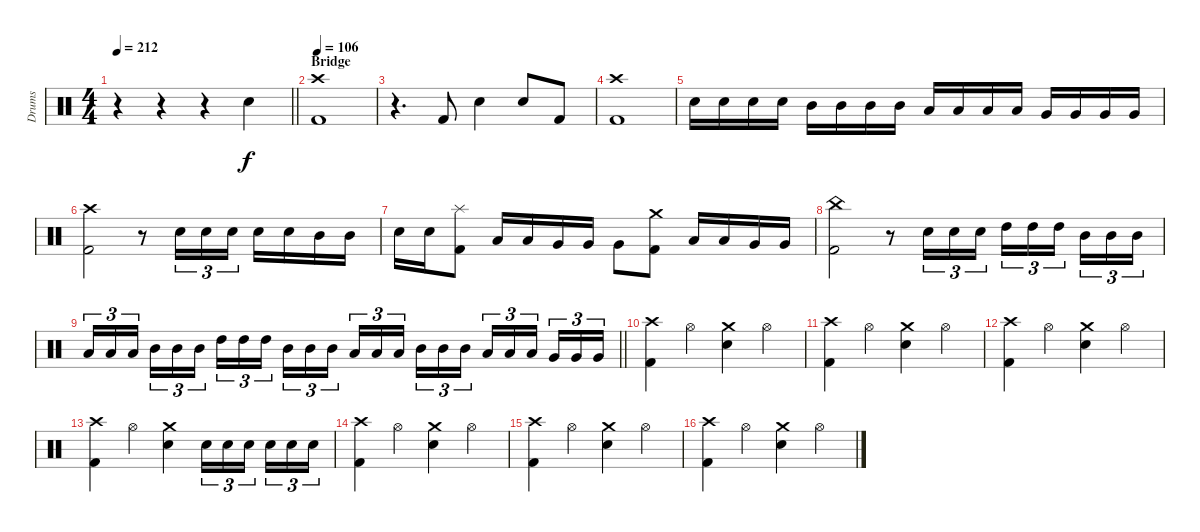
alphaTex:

\track ("Drums" "Drums") {instrument percussion}
\staff {score}
\articulation defaults
\ts (4 4)
\tempo 212
\clef neutral
\barLineRight lightlight
\ks c
r.4{dy f} r.4 r.4 "Electric Snare (hit)".4 |
\section ("" "Bridge")
\tempo 106
("Crash high (hit)" "Kick (hit) 2").1 |
r.4{d} "Kick (hit) 2".8 "Electric Snare (hit)".4 "Electric Snare (hit)".8 "Kick (hit) 2".8 |
("Crash high (hit)" "Kick (hit) 2").1 |
"Electric Snare (hit)".16 "Electric Snare (hit)".16 "Electric Snare (hit)".16 "Electric Snare (hit)".16 "Mid Tom (hit)".16 "Mid Tom (hit)".16 "Mid Tom (hit)".16 "Mid Tom (hit)".16 "Low Tom (hit)".16 "Low Tom (hit)".16 "Low Tom (hit)".16 "Low Tom (hit)".16 "Very Low Tom (hit)".16 "Very Low Tom (hit)".16 "Very Low Tom (hit)".16 "Very Low Tom (hit)".16 |
("Crash high (hit)" "Kick (hit) 2").2 r.8 "Electric Snare (hit)".16{tu (3 2)} "Electric Snare (hit)".16{tu (3 2)} "Electric Snare (hit)".16{tu (3 2)} "Electric Snare (hit)".16 "Electric Snare (hit)".16 "Mid Tom (hit)".16 "Mid Tom (hit)".16 |
"Electric Snare (hit)".16 "Electric Snare (hit)".16 ("Splash (hit)" "Kick (hit) 2").8 "Low Tom (hit)".16 "Low Tom (hit)".16 "Very Low Tom (hit)".16 "Very Low Tom (hit)".16 "Very Low Tom (hit)".8 ("Crash medium (hit)" "Kick (hit) 2").8 "Low Tom (hit)".16 "Low Tom (hit)".16 "Very Low Tom (hit)".16 "Very Low Tom (hit)".16 |
("China (hit)" "Kick (hit) 2").2 r.8 "Electric Snare (hit)".16{tu (3 2)} "Electric Snare (hit)".16{tu (3 2)} "Electric Snare (hit)".16{tu (3 2)} "High Tom (hit)".16{tu (3 2)} "High Tom (hit)".16{tu (3 2)} "High Tom (hit)".16{tu (3 2)} "Mid Tom (hit)".16{tu (3 2)} "Mid Tom (hit)".16{tu (3 2)} "Mid Tom (hit)".16{tu (3 2)} |
\barLineRight lightlight "Low Tom (hit)".16{tu (3 2)} "Low Tom (hit)".16{tu (3 2)} "Low Tom (hit)".16{tu (3 2)} "Mid Tom (hit)".16{tu (3 2)} "Mid Tom (hit)".16{tu (3 2)} "Mid Tom (hit)".16{tu (3 2)} "High Tom (hit)".16{tu (3 2)} "High Tom (hit)".16{tu (3 2)} "High Tom (hit)".16{tu (3 2)} "Mid Tom (hit)".16{tu (3 2)} "Mid Tom (hit)".16{tu (3 2)} "Mid Tom (hit)".16{tu (3 2)} "Low Tom (hit)".16{tu (3 2)} "Low Tom (hit)".16{tu (3 2)} "Low Tom (hit)".16{tu (3 2)} "Mid Tom (hit)".16{tu (3 2)} "Mid Tom (hit)".16{tu (3 2)} "Mid Tom (hit)".16{tu (3 2)} "Low Tom (hit)".16{tu (3 2)} "Low Tom (hit)".16{tu (3 2)} "Low Tom (hit)".16{tu (3 2)} "Very Low Tom (hit)".16{tu (3 2)} "Very Low Tom (hit)".16{tu (3 2)} "Very Low Tom (hit)".16{tu (3 2)}
|
\section ("" "")
("Crash high (hit)" "Kick (hit) 2").4 "Hi-Hat (open)".4 ("Crash medium (hit)" "Electric Snare (hit)").4 "Hi-Hat (open)".4 |
("Crash high (hit)" "Kick (hit) 2").4 "Hi-Hat (open)".4 ("Crash medium (hit)" "Electric Snare (hit)").4 "Hi-Hat (open)".4 |
("Crash high (hit)" "Kick (hit) 2").4 "Hi-Hat (open)".4 ("Crash medium (hit)" "Electric Snare (hit)").4 "Hi-Hat (open)".4 |
("Crash high (hit)" "Kick (hit) 2").4 "Hi-Hat (open)".4 ("Crash medium (hit)" "Electric Snare (hit)").4 "Electric Snare (hit)".16{tu (3 2)} "Electric Snare (hit)".16{tu (3 2)} "Electric Snare (hit)".16{tu (3 2)} "Electric Snare (hit)".16{tu (3 2)} "Electric Snare (hit)".16{tu (3 2)} "Electric Snare (hit)".16{tu (3 2)} |
("Crash high (hit)" "Kick (hit) 2").4 "Hi-Hat (open)".4 ("Crash medium (hit)" "Electric Snare (hit)").4 "Hi-Hat (open)".4 |
("Crash high (hit)" "Kick (hit) 2").4 "Hi-Hat (open)".4 ("Crash medium (hit)" "Electric Snare (hit)").4 "Hi-Hat (open)".4 |
("Crash high (hit)" "Kick (hit) 2").4 "Hi-Hat (open)".4 ("Crash medium (hit)" "Electric Snare (hit)").4 "Hi-Hat (open)".4
